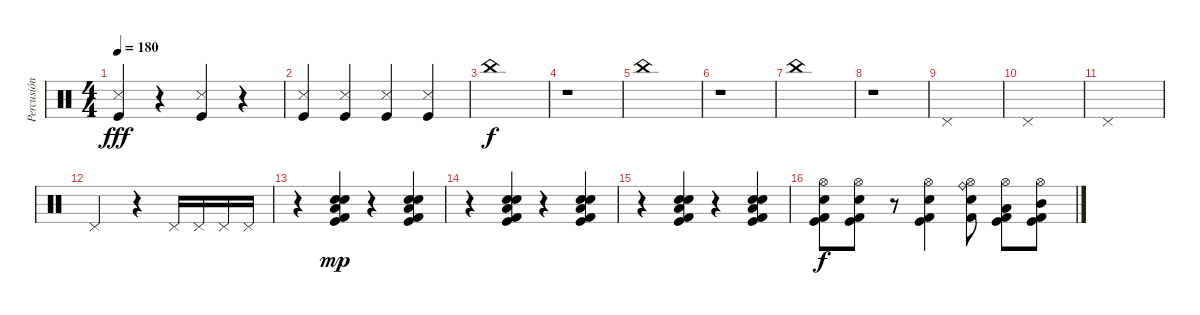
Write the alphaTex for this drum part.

\track ("Percusión" "Percusión") {instrument percussion}
\staff {score}
\articulation defaults
\ts (4 4)
\tempo 180
\clef neutral
\ks c
("Snare (side stick) 3" "Kick (hit)").4{dy fff} r.4 ("Snare (side stick) 3" "Kick (hit)").4 r.4 |
("Snare (side stick) 3" "Kick (hit)").4 ("Snare (side stick) 3" "Kick (hit)").4 ("Snare (side stick) 3" "Kick (hit)").4 ("Snare (side stick) 3" "Kick (hit)").4 |
"China (hit)".1{dy f} |
r.1 |
"China (hit)".1 |
r.1 |
"China (hit)".1 |
r.1 |
"Pedal Hi-Hat (hit)".1 |
"Pedal Hi-Hat (hit)".1 |
"Pedal Hi-Hat (hit)".1 |
"Pedal Hi-Hat (hit)".2 r.4 "Pedal Hi-Hat (hit)".16 "Pedal Hi-Hat (hit)".16 "Pedal Hi-Hat (hit)".16 "Pedal Hi-Hat (hit)".16 |
r.4 ("Electric Snare (hit)" "Low Tom (hit)" "Hand Clap (hit)" "Kick (hit) 2" "Kick (hit)").4{dy mp} r.4 ("Electric Snare (hit)" "Low Tom (hit)" "Hand Clap (hit)" "Kick (hit) 2" "Kick (hit)").4 |
r.4 ("Electric Snare (hit)" "Low Tom (hit)" "Hand Clap (hit)" "Kick (hit) 2" "Kick (hit)").4 r.4 ("Electric Snare (hit)" "Low Tom (hit)" "Hand Clap (hit)" "Kick (hit) 2" "Kick (hit)").4 |
r.4 ("Electric Snare (hit)" "Low Tom (hit)" "Hand Clap (hit)" "Kick (hit) 2" "Kick (hit)").4 r.4 ("Electric Snare (hit)" "Low Tom (hit)" "Hand Clap (hit)" "Kick (hit) 2" "Kick (hit)").4 |
("Electric Snare (hit)" "Hi-Hat (open)" "Kick (hit) 2" "Kick (hit)").8{dy f} ("Electric Snare (hit)" "Hi-Hat (open)" "Kick (hit) 2" "Kick (hit)").8 r.8 ("Electric Snare (hit)" "Hi-Hat (open)" "Kick (hit) 2" "Kick (hit)").4 ("Electric Snare (hit)" "Hi-Hat (open)" "Kick (hit) 2" "Ride (bell)").8 ("Low Tom (hit)" "Hi-Hat (open)" "Kick (hit) 2" "Kick (hit)").8 ("Mid Tom (hit)" "Hi-Hat (open)" "Kick (hit) 2" "Kick (hit)").8
